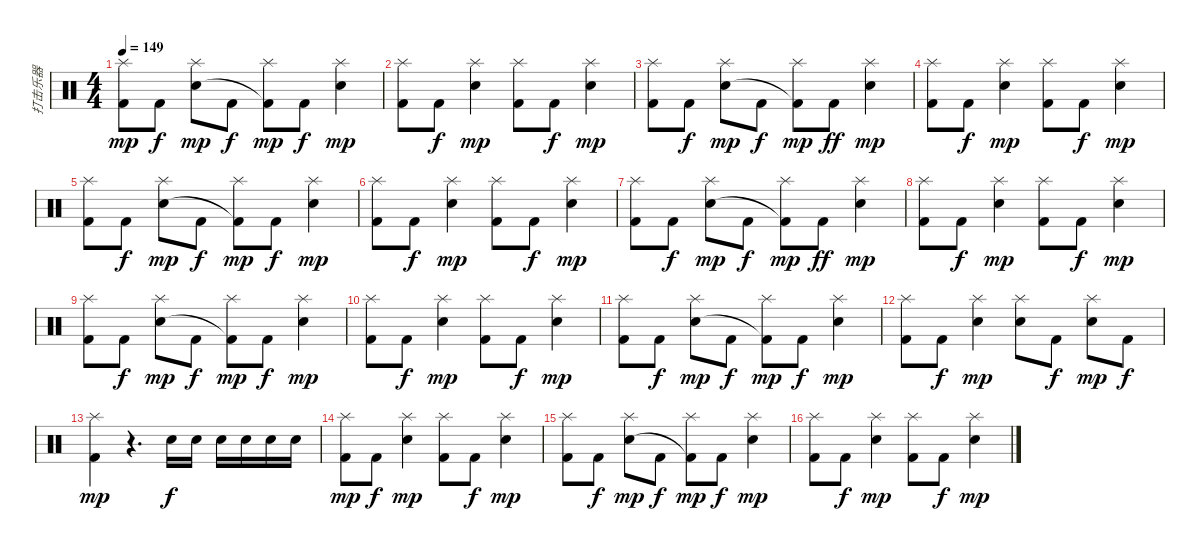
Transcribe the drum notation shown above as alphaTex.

\track ("打击乐器" "打击乐器") {instrument percussion}
\staff {score}
\articulation defaults
\ts (4 4)
\tempo 149
\clef neutral
\ks c
("Splash (hit)" "Kick (hit) 2").8{dy mp} "Kick (hit) 2".8{dy f} ("Splash (hit)" "Electric Snare (hit)").8{dy mp} "Kick (hit) 2".8{dy f} ("Splash (hit)" "Kick (hit) 2"{t}).8{dy mp} "Kick (hit) 2".8{dy f} ("Splash (hit)" "Electric Snare (hit)").4{dy mp} |
("Splash (hit)" "Kick (hit) 2").8 "Kick (hit) 2".8{dy f} ("Splash (hit)" "Electric Snare (hit)").4{dy mp} ("Splash (hit)" "Kick (hit) 2").8 "Kick (hit) 2".8{dy f} ("Splash (hit)" "Electric Snare (hit)").4{dy mp} |
("Splash (hit)" "Kick (hit) 2").8 "Kick (hit) 2".8{dy f} ("Splash (hit)" "Electric Snare (hit)").8{dy mp} "Kick (hit) 2".8{dy f} ("Splash (hit)" "Kick (hit) 2"{t}).8{dy mp} "Kick (hit) 2".8{dy ff} ("Splash (hit)" "Electric Snare (hit)").4{dy mp} |
("Splash (hit)" "Kick (hit) 2").8 "Kick (hit) 2".8{dy f} ("Splash (hit)" "Electric Snare (hit)").4{dy mp} ("Splash (hit)" "Kick (hit) 2").8 "Kick (hit) 2".8{dy f} ("Splash (hit)" "Electric Snare (hit)").4{dy mp} |
("Splash (hit)" "Kick (hit) 2").8 "Kick (hit) 2".8{dy f} ("Splash (hit)" "Electric Snare (hit)").8{dy mp} "Kick (hit) 2".8{dy f} ("Splash (hit)" "Kick (hit) 2"{t}).8{dy mp} "Kick (hit) 2".8{dy f} ("Splash (hit)" "Electric Snare (hit)").4{dy mp} |
("Splash (hit)" "Kick (hit) 2").8 "Kick (hit) 2".8{dy f} ("Splash (hit)" "Electric Snare (hit)").4{dy mp} ("Splash (hit)" "Kick (hit) 2").8 "Kick (hit) 2".8{dy f} ("Splash (hit)" "Electric Snare (hit)").4{dy mp} |
("Splash (hit)" "Kick (hit) 2").8 "Kick (hit) 2".8{dy f} ("Splash (hit)" "Electric Snare (hit)").8{dy mp} "Kick (hit) 2".8{dy f} ("Splash (hit)" "Kick (hit) 2"{t}).8{dy mp} "Kick (hit) 2".8{dy ff} ("Splash (hit)" "Electric Snare (hit)").4{dy mp} |
("Splash (hit)" "Kick (hit) 2").8 "Kick (hit) 2".8{dy f} ("Splash (hit)" "Electric Snare (hit)").4{dy mp} ("Splash (hit)" "Kick (hit) 2").8 "Kick (hit) 2".8{dy f} ("Splash (hit)" "Electric Snare (hit)").4{dy mp} |
("Splash (hit)" "Kick (hit) 2").8 "Kick (hit) 2".8{dy f} ("Splash (hit)" "Electric Snare (hit)").8{dy mp} "Kick (hit) 2".8{dy f} ("Splash (hit)" "Kick (hit) 2"{t}).8{dy mp} "Kick (hit) 2".8{dy f} ("Splash (hit)" "Electric Snare (hit)").4{dy mp} |
("Splash (hit)" "Kick (hit) 2").8 "Kick (hit) 2".8{dy f} ("Splash (hit)" "Electric Snare (hit)").4{dy mp} ("Splash (hit)" "Kick (hit) 2").8 "Kick (hit) 2".8{dy f} ("Splash (hit)" "Electric Snare (hit)").4{dy mp} |
("Splash (hit)" "Kick (hit) 2").8 "Kick (hit) 2".8{dy f} ("Splash (hit)" "Electric Snare (hit)").8{dy mp} "Kick (hit) 2".8{dy f} ("Splash (hit)" "Kick (hit) 2"{t}).8{dy mp} "Kick (hit) 2".8{dy f} ("Splash (hit)" "Electric Snare (hit)").4{dy mp} |
("Splash (hit)" "Kick (hit) 2").8 "Kick (hit) 2".8{dy f} ("Splash (hit)" "Electric Snare (hit)").4{dy mp} ("Splash (hit)" "Electric Snare (hit)").8 "Kick (hit) 2".8{dy f} ("Splash (hit)" "Electric Snare (hit)").8{dy mp} "Kick (hit) 2".8{dy f} |
("Splash (hit)" "Kick (hit) 2").4{dy mp} r.4{d} "Electric Snare (hit)".16{dy f} "Electric Snare (hit)".16 "Electric Snare (hit)".16 "Electric Snare (hit)".16 "Electric Snare (hit)".16 "Electric Snare (hit)".16 |
("Splash (hit)" "Kick (hit) 2").8{dy mp} "Kick (hit) 2".8{dy f} ("Splash (hit)" "Electric Snare (hit)").4{dy mp} ("Splash (hit)" "Kick (hit) 2").8 "Kick (hit) 2".8{dy f} ("Splash (hit)" "Electric Snare (hit)").4{dy mp} |
("Splash (hit)" "Kick (hit) 2").8 "Kick (hit) 2".8{dy f} ("Splash (hit)" "Electric Snare (hit)").8{dy mp} "Kick (hit) 2".8{dy f} ("Splash (hit)" "Kick (hit) 2"{t}).8{dy mp} "Kick (hit) 2".8{dy f} ("Splash (hit)" "Electric Snare (hit)").4{dy mp} |
("Splash (hit)" "Kick (hit) 2").8 "Kick (hit) 2".8{dy f} ("Splash (hit)" "Electric Snare (hit)").4{dy mp} ("Splash (hit)" "Kick (hit) 2").8 "Kick (hit) 2".8{dy f} ("Splash (hit)" "Electric Snare (hit)").4{dy mp}
